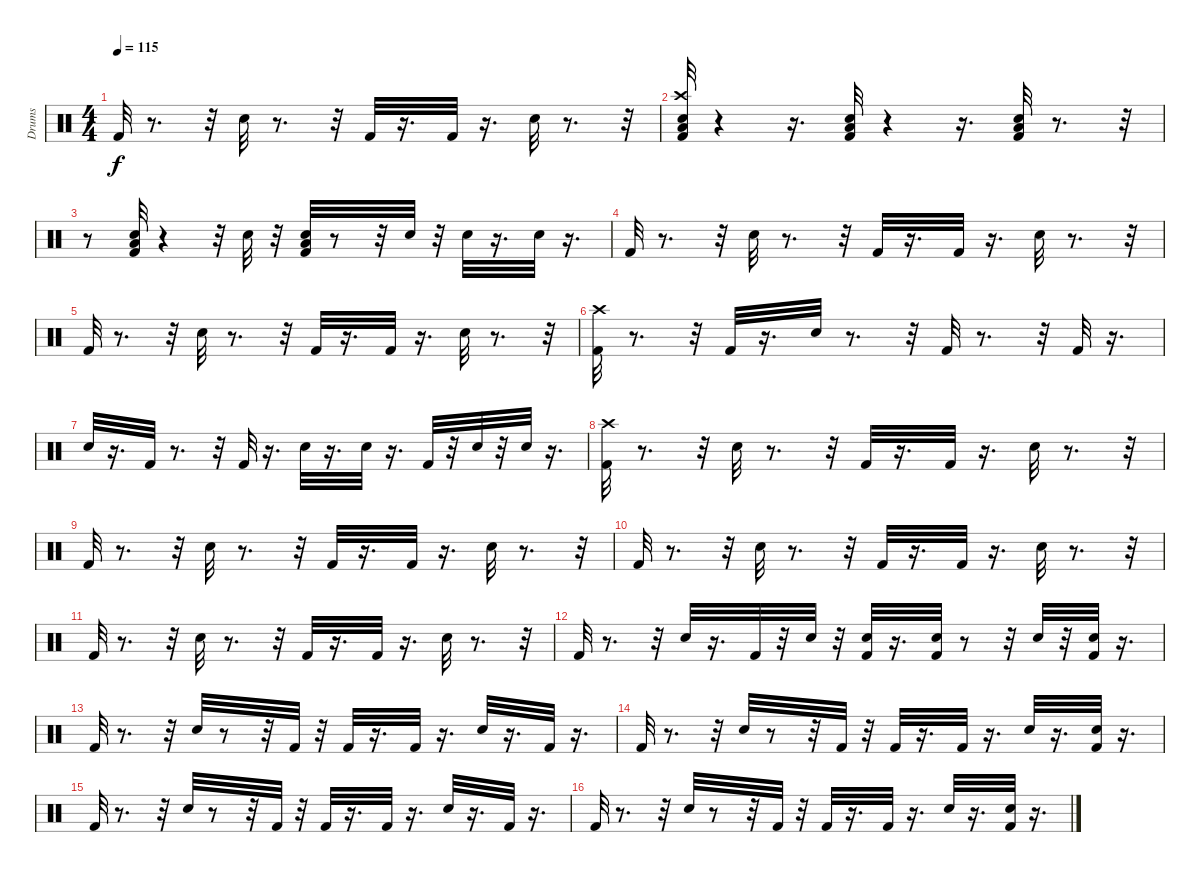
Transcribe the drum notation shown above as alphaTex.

\track ("Drums" "Drums") {instrument percussion}
\staff {score}
\articulation defaults
\ts (4 4)
\tempo 115
\clef neutral
\ks c "Kick (hit) 2".32{dy f}
r.8{d} r.32 "Snare (hit) 2".32 r.8{d} r.32 "Kick (hit) 2".32 r.16{d} "Kick (hit) 2".32 r.16{d} "Snare (hit) 2".32 r.8{d} r.32 |
("Crash high (hit)" "Kick (hit) 2" "Low Floor Tom (hit)" "Snare (hit) 2").32 r.4 r.16{d} ("Kick (hit) 2" "Low Floor Tom (hit)" "Snare (hit) 2").32 r.4 r.16{d} ("Kick (hit) 2" "Low Floor Tom (hit)" "Snare (hit) 2").32 r.8{d} r.32 |
r.8 ("Kick (hit) 2" "Low Floor Tom (hit)" "Snare (hit) 2").32 r.4 r.32 "Snare (hit) 2".32 r.32 ("Kick (hit) 2" "Low Floor Tom (hit)" "Snare (hit) 2").32 r.8 r.32 "Snare (hit) 2".32 r.32 "Snare (hit) 2".32 r.16{d} "Snare (hit) 2".32 r.16{d} |
"Kick (hit) 2".32 r.8{d} r.32 "Snare (hit) 2".32 r.8{d} r.32 "Kick (hit) 2".32 r.16{d} "Kick (hit) 2".32 r.16{d} "Snare (hit) 2".32 r.8{d} r.32 |
"Kick (hit) 2".32 r.8{d} r.32 "Snare (hit) 2".32 r.8{d} r.32 "Kick (hit) 2".32 r.16{d} "Kick (hit) 2".32 r.16{d} "Snare (hit) 2".32 r.8{d} r.32 |
("Crash high (hit)" "Kick (hit) 2").32 r.8{d} r.32 "Kick (hit) 2".32 r.16{d} "Snare (hit) 2".32 r.8{d} r.32 "Kick (hit) 2".32 r.8{d} r.32 "Kick (hit) 2".32 r.16{d} |
"Snare (hit) 2".32 r.16{d} "Kick (hit) 2".32 r.8{d} r.32 "Kick (hit) 2".32 r.16{d} "Snare (hit) 2".32 r.16{d} "Snare (hit) 2".32 r.16{d} "Kick (hit) 2".32 r.32 "Snare (hit) 2".32 r.32 "Snare (hit) 2".32 r.16{d} |
("Crash high (hit)" "Kick (hit) 2").32 r.8{d} r.32 "Snare (hit) 2".32 r.8{d} r.32 "Kick (hit) 2".32 r.16{d} "Kick (hit) 2".32 r.16{d} "Snare (hit) 2".32 r.8{d} r.32 |
"Kick (hit) 2".32 r.8{d} r.32 "Snare (hit) 2".32 r.8{d} r.32 "Kick (hit) 2".32 r.16{d} "Kick (hit) 2".32 r.16{d} "Snare (hit) 2".32 r.8{d} r.32 |
"Kick (hit) 2".32 r.8{d} r.32 "Snare (hit) 2".32 r.8{d} r.32 "Kick (hit) 2".32 r.16{d} "Kick (hit) 2".32 r.16{d} "Snare (hit) 2".32 r.8{d} r.32 |
"Kick (hit) 2".32 r.8{d} r.32 "Snare (hit) 2".32 r.8{d} r.32 "Kick (hit) 2".32 r.16{d} "Kick (hit) 2".32 r.16{d} "Snare (hit) 2".32 r.8{d} r.32 |
"Kick (hit) 2".32 r.8{d} r.32 "Snare (hit) 2".32 r.16{d} "Kick (hit) 2".32 r.32 "Snare (hit) 2".32 r.32 ("Snare (hit) 2" "Kick (hit) 2").32 r.16{d} ("Snare (hit) 2" "Kick (hit) 2").32 r.8 r.32 "Snare (hit) 2".32 r.32 ("Kick (hit) 2" "Snare (hit) 2").32 r.16{d} |
"Kick (hit) 2".32 r.8{d} r.32 "Snare (hit) 2".32 r.8 r.32 "Kick (hit) 2".32 r.32 "Kick (hit) 2".32 r.16{d} "Kick (hit) 2".32 r.16{d} "Snare (hit) 2".32 r.16{d} "Kick (hit) 2".32 r.16{d} |
"Kick (hit) 2".32 r.8{d} r.32 "Snare (hit) 2".32 r.8 r.32 "Kick (hit) 2".32 r.32 "Kick (hit) 2".32 r.16{d} "Kick (hit) 2".32 r.16{d} "Snare (hit) 2".32 r.16{d} ("Snare (hit) 2" "Kick (hit) 2").32 r.16{d} |
"Kick (hit) 2".32 r.8{d} r.32 "Snare (hit) 2".32 r.8 r.32 "Kick (hit) 2".32 r.32 "Kick (hit) 2".32 r.16{d} "Kick (hit) 2".32 r.16{d} "Snare (hit) 2".32 r.16{d} "Kick (hit) 2".32 r.16{d} |
"Kick (hit) 2".32 r.8{d} r.32 "Snare (hit) 2".32 r.8 r.32 "Kick (hit) 2".32 r.32 "Kick (hit) 2".32 r.16{d} "Kick (hit) 2".32 r.16{d} "Snare (hit) 2".32 r.16{d} ("Snare (hit) 2" "Kick (hit) 2").32 r.16{d}
